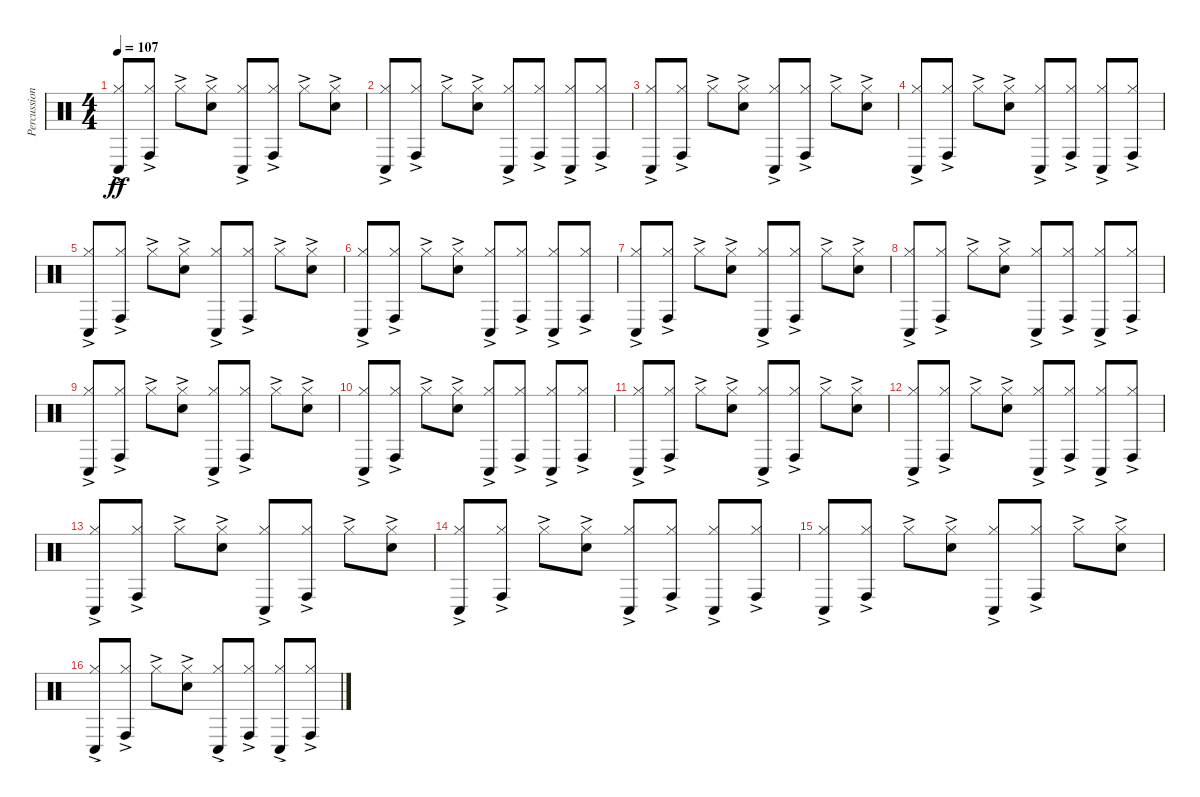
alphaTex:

\track ("Percussion" "Percussion") {instrument percussion}
\staff {score}
\articulation defaults
\ts (4 4)
\tempo 107
\clef neutral
\ks c
("Hi-Hat (closed)"{ac} "Conga low (hit)"{ac}).8{dy ff} ("Hi-Hat (closed)"{ac} "Conga high (hit)"{ac}).8 "Hi-Hat (closed)"{ac}.8 ("Hi-Hat (closed)"{ac} "Hand Clap (hit)"{ac}).8 ("Hi-Hat (closed)"{ac} "Conga low (hit)"{ac}).8 ("Hi-Hat (closed)"{ac} "Conga high (hit)"{ac}).8 "Hi-Hat (closed)"{ac}.8 ("Hi-Hat (closed)"{ac} "Hand Clap (hit)"{ac}).8 |
("Hi-Hat (closed)"{ac} "Conga low (hit)"{ac}).8 ("Hi-Hat (closed)"{ac} "Conga high (hit)"{ac}).8 "Hi-Hat (closed)"{ac}.8 ("Hi-Hat (closed)"{ac} "Hand Clap (hit)"{ac}).8 ("Hi-Hat (closed)"{ac} "Conga low (hit)"{ac}).8 ("Hi-Hat (closed)"{ac} "Conga high (hit)"{ac}).8 ("Hi-Hat (closed)"{ac} "Conga low (hit)"{ac}).8 ("Hi-Hat (closed)"{ac} "Conga high (hit)"{ac}).8 |
("Hi-Hat (closed)"{ac} "Conga low (hit)"{ac}).8 ("Hi-Hat (closed)"{ac} "Conga high (hit)"{ac}).8 "Hi-Hat (closed)"{ac}.8 ("Hi-Hat (closed)"{ac} "Hand Clap (hit)"{ac}).8 ("Hi-Hat (closed)"{ac} "Conga low (hit)"{ac}).8 ("Hi-Hat (closed)"{ac} "Conga high (hit)"{ac}).8 "Hi-Hat (closed)"{ac}.8 ("Hi-Hat (closed)"{ac} "Hand Clap (hit)"{ac}).8 |
("Hi-Hat (closed)"{ac} "Conga low (hit)"{ac}).8 ("Hi-Hat (closed)"{ac} "Conga high (hit)"{ac}).8 "Hi-Hat (closed)"{ac}.8 ("Hi-Hat (closed)"{ac} "Hand Clap (hit)"{ac}).8 ("Hi-Hat (closed)"{ac} "Conga low (hit)"{ac}).8 ("Hi-Hat (closed)"{ac} "Conga high (hit)"{ac}).8 ("Hi-Hat (closed)"{ac} "Conga low (hit)"{ac}).8 ("Hi-Hat (closed)"{ac} "Conga high (hit)"{ac}).8 |
("Hi-Hat (closed)"{ac} "Conga low (hit)"{ac}).8 ("Hi-Hat (closed)"{ac} "Conga high (hit)"{ac}).8 "Hi-Hat (closed)"{ac}.8 ("Hi-Hat (closed)"{ac} "Hand Clap (hit)"{ac}).8 ("Hi-Hat (closed)"{ac} "Conga low (hit)"{ac}).8 ("Hi-Hat (closed)"{ac} "Conga high (hit)"{ac}).8 "Hi-Hat (closed)"{ac}.8 ("Hi-Hat (closed)"{ac} "Hand Clap (hit)"{ac}).8 |
("Hi-Hat (closed)"{ac} "Conga low (hit)"{ac}).8 ("Hi-Hat (closed)"{ac} "Conga high (hit)"{ac}).8 "Hi-Hat (closed)"{ac}.8 ("Hi-Hat (closed)"{ac} "Hand Clap (hit)"{ac}).8 ("Hi-Hat (closed)"{ac} "Conga low (hit)"{ac}).8 ("Hi-Hat (closed)"{ac} "Conga high (hit)"{ac}).8 ("Hi-Hat (closed)"{ac} "Conga low (hit)"{ac}).8 ("Hi-Hat (closed)"{ac} "Conga high (hit)"{ac}).8 |
("Hi-Hat (closed)"{ac} "Conga low (hit)"{ac}).8 ("Hi-Hat (closed)"{ac} "Conga high (hit)"{ac}).8 "Hi-Hat (closed)"{ac}.8 ("Hi-Hat (closed)"{ac} "Hand Clap (hit)"{ac}).8 ("Hi-Hat (closed)"{ac} "Conga low (hit)"{ac}).8 ("Hi-Hat (closed)"{ac} "Conga high (hit)"{ac}).8 "Hi-Hat (closed)"{ac}.8 ("Hi-Hat (closed)"{ac} "Hand Clap (hit)"{ac}).8 |
("Hi-Hat (closed)"{ac} "Conga low (hit)"{ac}).8 ("Hi-Hat (closed)"{ac} "Conga high (hit)"{ac}).8 "Hi-Hat (closed)"{ac}.8 ("Hi-Hat (closed)"{ac} "Hand Clap (hit)"{ac}).8 ("Hi-Hat (closed)"{ac} "Conga low (hit)"{ac}).8 ("Hi-Hat (closed)"{ac} "Conga high (hit)"{ac}).8 ("Hi-Hat (closed)"{ac} "Conga low (hit)"{ac}).8 ("Hi-Hat (closed)"{ac} "Conga high (hit)"{ac}).8 |
("Hi-Hat (closed)"{ac} "Conga low (hit)"{ac}).8 ("Hi-Hat (closed)"{ac} "Conga high (hit)"{ac}).8 "Hi-Hat (closed)"{ac}.8 ("Hi-Hat (closed)"{ac} "Hand Clap (hit)"{ac}).8 ("Hi-Hat (closed)"{ac} "Conga low (hit)"{ac}).8 ("Hi-Hat (closed)"{ac} "Conga high (hit)"{ac}).8 "Hi-Hat (closed)"{ac}.8 ("Hi-Hat (closed)"{ac} "Hand Clap (hit)"{ac}).8 |
("Hi-Hat (closed)"{ac} "Conga low (hit)"{ac}).8 ("Hi-Hat (closed)"{ac} "Conga high (hit)"{ac}).8 "Hi-Hat (closed)"{ac}.8 ("Hi-Hat (closed)"{ac} "Hand Clap (hit)"{ac}).8 ("Hi-Hat (closed)"{ac} "Conga low (hit)"{ac}).8 ("Hi-Hat (closed)"{ac} "Conga high (hit)"{ac}).8 ("Hi-Hat (closed)"{ac} "Conga low (hit)"{ac}).8 ("Hi-Hat (closed)"{ac} "Conga high (hit)"{ac}).8 |
("Hi-Hat (closed)"{ac} "Conga low (hit)"{ac}).8 ("Hi-Hat (closed)"{ac} "Conga high (hit)"{ac}).8 "Hi-Hat (closed)"{ac}.8 ("Hi-Hat (closed)"{ac} "Hand Clap (hit)"{ac}).8 ("Hi-Hat (closed)"{ac} "Conga low (hit)"{ac}).8 ("Hi-Hat (closed)"{ac} "Conga high (hit)"{ac}).8 "Hi-Hat (closed)"{ac}.8 ("Hi-Hat (closed)"{ac} "Hand Clap (hit)"{ac}).8 |
("Hi-Hat (closed)"{ac} "Conga low (hit)"{ac}).8 ("Hi-Hat (closed)"{ac} "Conga high (hit)"{ac}).8 "Hi-Hat (closed)"{ac}.8 ("Hi-Hat (closed)"{ac} "Hand Clap (hit)"{ac}).8 ("Hi-Hat (closed)"{ac} "Conga low (hit)"{ac}).8 ("Hi-Hat (closed)"{ac} "Conga high (hit)"{ac}).8 ("Hi-Hat (closed)"{ac} "Conga low (hit)"{ac}).8 ("Hi-Hat (closed)"{ac} "Conga high (hit)"{ac}).8 |
("Hi-Hat (closed)"{ac} "Conga low (hit)"{ac}).8 ("Hi-Hat (closed)"{ac} "Conga high (hit)"{ac}).8 "Hi-Hat (closed)"{ac}.8 ("Hi-Hat (closed)"{ac} "Hand Clap (hit)"{ac}).8 ("Hi-Hat (closed)"{ac} "Conga low (hit)"{ac}).8 ("Hi-Hat (closed)"{ac} "Conga high (hit)"{ac}).8 "Hi-Hat (closed)"{ac}.8 ("Hi-Hat (closed)"{ac} "Hand Clap (hit)"{ac}).8 |
("Hi-Hat (closed)"{ac} "Conga low (hit)"{ac}).8 ("Hi-Hat (closed)"{ac} "Conga high (hit)"{ac}).8 "Hi-Hat (closed)"{ac}.8 ("Hi-Hat (closed)"{ac} "Hand Clap (hit)"{ac}).8 ("Hi-Hat (closed)"{ac} "Conga low (hit)"{ac}).8 ("Hi-Hat (closed)"{ac} "Conga high (hit)"{ac}).8 ("Hi-Hat (closed)"{ac} "Conga low (hit)"{ac}).8 ("Hi-Hat (closed)"{ac} "Conga high (hit)"{ac}).8 |
("Hi-Hat (closed)"{ac} "Conga low (hit)"{ac}).8 ("Hi-Hat (closed)"{ac} "Conga high (hit)"{ac}).8 "Hi-Hat (closed)"{ac}.8 ("Hi-Hat (closed)"{ac} "Hand Clap (hit)"{ac}).8 ("Hi-Hat (closed)"{ac} "Conga low (hit)"{ac}).8 ("Hi-Hat (closed)"{ac} "Conga high (hit)"{ac}).8 "Hi-Hat (closed)"{ac}.8 ("Hi-Hat (closed)"{ac} "Hand Clap (hit)"{ac}).8 |
("Hi-Hat (closed)"{ac} "Conga low (hit)"{ac}).8 ("Hi-Hat (closed)"{ac} "Conga high (hit)"{ac}).8 "Hi-Hat (closed)"{ac}.8 ("Hi-Hat (closed)"{ac} "Hand Clap (hit)"{ac}).8 ("Hi-Hat (closed)"{ac} "Conga low (hit)"{ac}).8 ("Hi-Hat (closed)"{ac} "Conga high (hit)"{ac}).8 ("Hi-Hat (closed)"{ac} "Conga low (hit)"{ac}).8 ("Hi-Hat (closed)"{ac} "Conga high (hit)"{ac}).8
